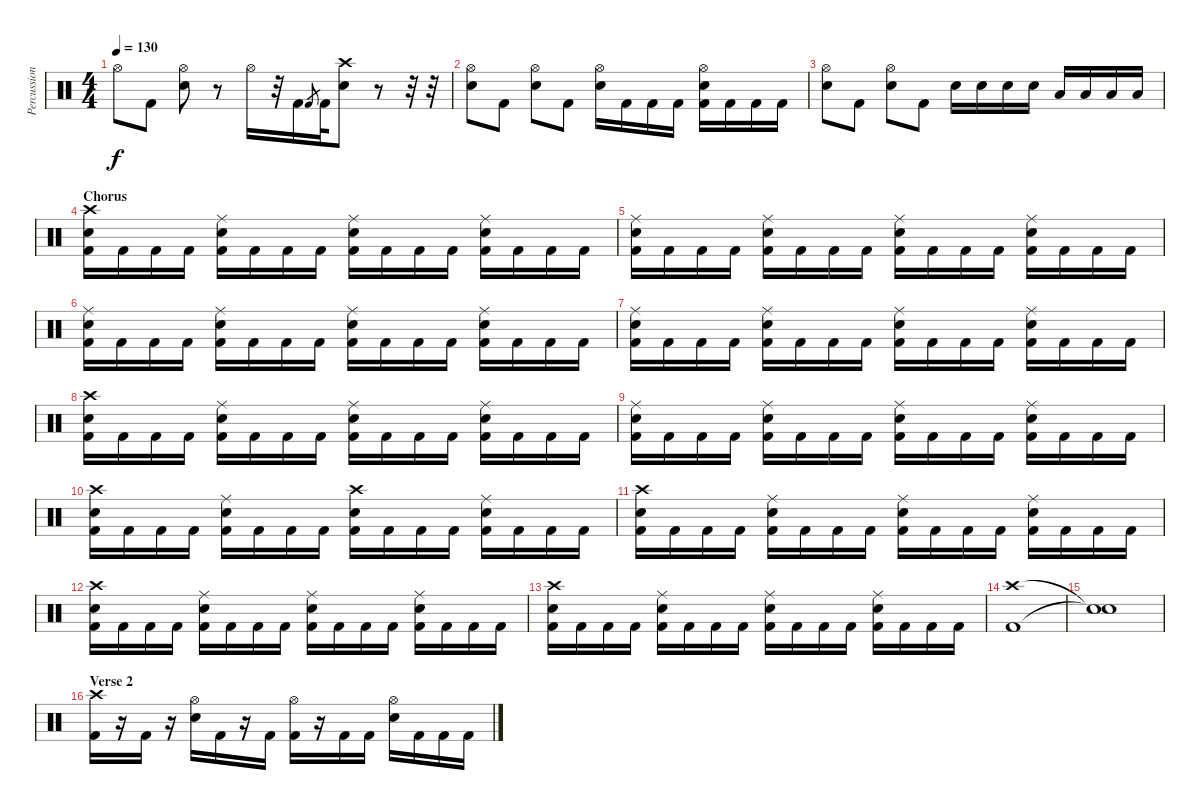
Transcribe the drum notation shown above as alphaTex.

\track ("Percussion" "Percussion") {instrument percussion}
\staff {score}
\articulation defaults
\ts (4 4)
\tempo 130
\clef neutral
\ks c "Hi-Hat (open)".8{dy f} "Kick (hit) 2".8
("Hi-Hat (open)" "Snare (hit) 2").8 r.8 "Hi-Hat (open)".16 r.32 "Kick (hit) 2".16 "Kick (hit) 2".8{gr} "Kick (hit) 2".32 ("Crash high (hit)" "Snare (hit) 2").8 r.8 r.32 r.32 |
("Hi-Hat (open)" "Snare (hit) 2").8 "Kick (hit) 2".8 ("Hi-Hat (open)" "Snare (hit) 2").8 "Kick (hit) 2".8 ("Hi-Hat (open)" "Snare (hit) 2").16 "Kick (hit) 2".16 "Kick (hit) 2".16 "Kick (hit) 2".16 ("Hi-Hat (open)" "Snare (hit) 2" "Kick (hit) 2").16 "Kick (hit) 2".16 "Kick (hit) 2".16 "Kick (hit) 2".16 |
("Hi-Hat (open)" "Snare (hit) 2").8 "Kick (hit) 2".8 ("Hi-Hat (open)" "Snare (hit) 2").8 "Kick (hit) 2".8 "Snare (hit) 2".16 "Snare (hit) 2".16 "Snare (hit) 2".16 "Snare (hit) 2".16 "Low Tom (hit)".16 "Low Tom (hit)".16 "Low Tom (hit)".16 "Low Tom (hit)".16 |
\section ("" "Chorus")
("Crash high (hit)" "Snare (hit) 2" "Kick (hit) 2").16 "Kick (hit) 2".16 "Kick (hit) 2".16 "Kick (hit) 2".16 ("Ride (middle)" "Snare (hit) 2" "Kick (hit) 2").16 "Kick (hit) 2".16 "Kick (hit) 2".16 "Kick (hit) 2".16 ("Ride (middle)" "Snare (hit) 2" "Kick (hit) 2").16 "Kick (hit) 2".16 "Kick (hit) 2".16 "Kick (hit) 2".16 ("Ride (middle)" "Snare (hit) 2" "Kick (hit) 2").16 "Kick (hit) 2".16 "Kick (hit) 2".16 "Kick (hit) 2".16 |
("Ride (middle)" "Snare (hit) 2" "Kick (hit) 2").16 "Kick (hit) 2".16 "Kick (hit) 2".16 "Kick (hit) 2".16 ("Ride (middle)" "Snare (hit) 2" "Kick (hit) 2").16 "Kick (hit) 2".16 "Kick (hit) 2".16 "Kick (hit) 2".16 ("Ride (middle)" "Snare (hit) 2" "Kick (hit) 2").16 "Kick (hit) 2".16 "Kick (hit) 2".16 "Kick (hit) 2".16 ("Ride (middle)" "Snare (hit) 2" "Kick (hit) 2").16 "Kick (hit) 2".16 "Kick (hit) 2".16 "Kick (hit) 2".16 |
("Ride (middle)" "Snare (hit) 2" "Kick (hit) 2").16 "Kick (hit) 2".16 "Kick (hit) 2".16 "Kick (hit) 2".16 ("Ride (middle)" "Snare (hit) 2" "Kick (hit) 2").16 "Kick (hit) 2".16 "Kick (hit) 2".16 "Kick (hit) 2".16 ("Ride (middle)" "Snare (hit) 2" "Kick (hit) 2").16 "Kick (hit) 2".16 "Kick (hit) 2".16 "Kick (hit) 2".16 ("Ride (middle)" "Snare (hit) 2" "Kick (hit) 2").16 "Kick (hit) 2".16 "Kick (hit) 2".16 "Kick (hit) 2".16 |
("Ride (middle)" "Snare (hit) 2" "Kick (hit) 2").16 "Kick (hit) 2".16 "Kick (hit) 2".16 "Kick (hit) 2".16 ("Ride (middle)" "Snare (hit) 2" "Kick (hit) 2").16 "Kick (hit) 2".16 "Kick (hit) 2".16 "Kick (hit) 2".16 ("Ride (middle)" "Snare (hit) 2" "Kick (hit) 2").16 "Kick (hit) 2".16 "Kick (hit) 2".16 "Kick (hit) 2".16 ("Ride (middle)" "Snare (hit) 2" "Kick (hit) 2").16 "Kick (hit) 2".16 "Kick (hit) 2".16 "Kick (hit) 2".16 |
("Crash high (hit)" "Snare (hit) 2" "Kick (hit) 2").16 "Kick (hit) 2".16 "Kick (hit) 2".16 "Kick (hit) 2".16 ("Ride (middle)" "Snare (hit) 2" "Kick (hit) 2").16 "Kick (hit) 2".16 "Kick (hit) 2".16 "Kick (hit) 2".16 ("Ride (middle)" "Snare (hit) 2" "Kick (hit) 2").16 "Kick (hit) 2".16 "Kick (hit) 2".16 "Kick (hit) 2".16 ("Ride (middle)" "Snare (hit) 2" "Kick (hit) 2").16 "Kick (hit) 2".16 "Kick (hit) 2".16 "Kick (hit) 2".16 |
("Ride (middle)" "Snare (hit) 2" "Kick (hit) 2").16 "Kick (hit) 2".16 "Kick (hit) 2".16 "Kick (hit) 2".16 ("Ride (middle)" "Snare (hit) 2" "Kick (hit) 2").16 "Kick (hit) 2".16 "Kick (hit) 2".16 "Kick (hit) 2".16 ("Ride (middle)" "Snare (hit) 2" "Kick (hit) 2").16 "Kick (hit) 2".16 "Kick (hit) 2".16 "Kick (hit) 2".16 ("Ride (middle)" "Snare (hit) 2" "Kick (hit) 2").16 "Kick (hit) 2".16 "Kick (hit) 2".16 "Kick (hit) 2".16 |
("Crash high (hit)" "Snare (hit) 2" "Kick (hit) 2").16 "Kick (hit) 2".16 "Kick (hit) 2".16 "Kick (hit) 2".16 ("Ride (middle)" "Snare (hit) 2" "Kick (hit) 2").16 "Kick (hit) 2".16 "Kick (hit) 2".16 "Kick (hit) 2".16 ("Crash high (hit)" "Snare (hit) 2" "Kick (hit) 2").16 "Kick (hit) 2".16 "Kick (hit) 2".16 "Kick (hit) 2".16 ("Ride (middle)" "Snare (hit) 2" "Kick (hit) 2").16 "Kick (hit) 2".16 "Kick (hit) 2".16 "Kick (hit) 2".16 |
("Crash high (hit)" "Snare (hit) 2" "Kick (hit) 2").16 "Kick (hit) 2".16 "Kick (hit) 2".16 "Kick (hit) 2".16 ("Ride (middle)" "Snare (hit) 2" "Kick (hit) 2").16 "Kick (hit) 2".16 "Kick (hit) 2".16 "Kick (hit) 2".16 ("Ride (middle)" "Snare (hit) 2" "Kick (hit) 2").16 "Kick (hit) 2".16 "Kick (hit) 2".16 "Kick (hit) 2".16 ("Ride (middle)" "Snare (hit) 2" "Kick (hit) 2").16 "Kick (hit) 2".16 "Kick (hit) 2".16 "Kick (hit) 2".16 |
("Crash high (hit)" "Snare (hit) 2" "Kick (hit) 2").16 "Kick (hit) 2".16 "Kick (hit) 2".16 "Kick (hit) 2".16 ("Ride (middle)" "Snare (hit) 2" "Kick (hit) 2").16 "Kick (hit) 2".16 "Kick (hit) 2".16 "Kick (hit) 2".16 ("Ride (middle)" "Snare (hit) 2" "Kick (hit) 2").16 "Kick (hit) 2".16 "Kick (hit) 2".16 "Kick (hit) 2".16 ("Ride (middle)" "Snare (hit) 2" "Kick (hit) 2").16 "Kick (hit) 2".16 "Kick (hit) 2".16 "Kick (hit) 2".16 |
("Crash high (hit)" "Snare (hit) 2" "Kick (hit) 2").16 "Kick (hit) 2".16 "Kick (hit) 2".16 "Kick (hit) 2".16 ("Ride (middle)" "Snare (hit) 2" "Kick (hit) 2").16 "Kick (hit) 2".16 "Kick (hit) 2".16 "Kick (hit) 2".16 ("Ride (middle)" "Snare (hit) 2" "Kick (hit) 2").16 "Kick (hit) 2".16 "Kick (hit) 2".16 "Kick (hit) 2".16 ("Ride (middle)" "Snare (hit) 2" "Kick (hit) 2").16 "Kick (hit) 2".16 "Kick (hit) 2".16 "Kick (hit) 2".16 |
("Crash high (hit)" "Kick (hit) 2").1 |
("Snare (hit)"{t} "Snare (hit)"{t}).1 |
\section ("" "Verse 2")
("Crash high (hit)" "Kick (hit) 2").16 r.16 "Kick (hit) 2".16 r.16 ("Hi-Hat (open)" "Snare (hit) 2").16 "Kick (hit) 2".16 r.16 "Kick (hit) 2".16 ("Hi-Hat (open)" "Kick (hit) 2").16 r.16 "Kick (hit) 2".16 "Kick (hit) 2".16 ("Hi-Hat (open)" "Snare (hit) 2").16 "Kick (hit) 2".16 "Kick (hit) 2".16 "Kick (hit) 2".16
